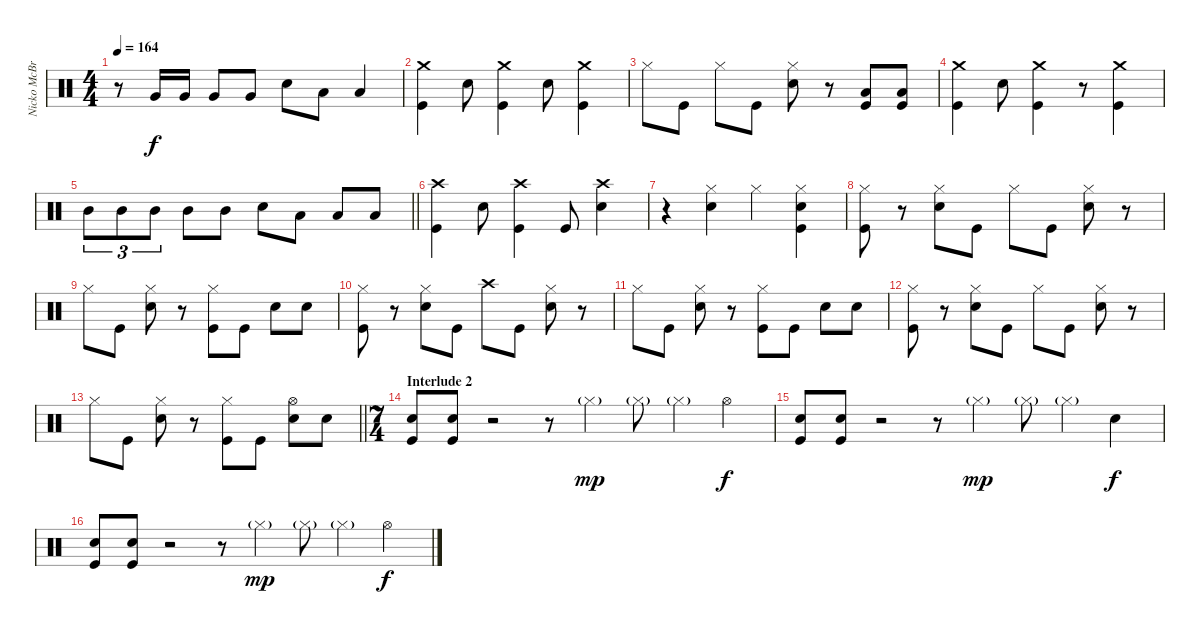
\track ("Nicko McBrain" "Nicko McBr") {instrument percussion}
\staff {score}
\articulation defaults
\ts (4 4)
\tempo 164
\clef neutral
\ks c
r.8{dy f} "Very Low Tom (hit)".16 "Very Low Tom (hit)".16 "Very Low Tom (hit)".8 "Very Low Tom (hit)".8 "Electric Snare (hit)".8 "Low Tom (hit)".8 "Low Tom (hit)".4 |
("Crash medium (hit)" "Kick (hit)").4 "Electric Snare (hit)".8 ("Crash medium (hit)" "Kick (hit)").4 "Electric Snare (hit)".8 ("Crash medium (hit)" "Kick (hit)").4 |
"Hi-Hat (closed)".8 "Kick (hit)".8 "Hi-Hat (closed)".8 "Kick (hit)".8 ("Hi-Hat (closed)" "Electric Snare (hit)").8 r.8 ("Low Tom (hit)" "Kick (hit)").8 ("Low Tom (hit)" "Kick (hit)").8 |
("Crash medium (hit)" "Kick (hit)").4 "Electric Snare (hit)".8 ("Crash medium (hit)" "Kick (hit)").4 r.8 ("Crash medium (hit)" "Kick (hit)").4 |
\barLineRight lightlight "Mid Tom (hit)".8{tu (3 2)} "Mid Tom (hit)".8{tu (3 2)} "Mid Tom (hit)".8{tu (3 2)} "Mid Tom (hit)".8 "Mid Tom (hit)".8 "Electric Snare (hit)".8 "Low Tom (hit)".8 "Low Tom (hit)".8 "Low Tom (hit)".8
|
("Crash high (hit)" "Kick (hit)").4 "Electric Snare (hit)".8 ("Crash high (hit)" "Kick (hit)").4 "Kick (hit)".8 ("Crash high (hit)" "Electric Snare (hit)").4 |
r.4 ("Hi-Hat (closed)" "Electric Snare (hit)").4 "Hi-Hat (closed)".4 ("Hi-Hat (closed)" "Electric Snare (hit)" "Kick (hit)").4 |
("Hi-Hat (closed)" "Kick (hit)").8 r.8 ("Hi-Hat (closed)" "Electric Snare (hit)").8 "Kick (hit)".8 "Hi-Hat (closed)".8 "Kick (hit)".8 ("Hi-Hat (closed)" "Electric Snare (hit)").8 r.8 |
"Hi-Hat (closed)".8 "Kick (hit)".8 ("Hi-Hat (closed)" "Electric Snare (hit)").8 r.8 ("Hi-Hat (closed)" "Kick (hit)").8 "Kick (hit)".8 "Electric Snare (hit)".8 "Electric Snare (hit)".8 |
("Hi-Hat (closed)" "Kick (hit)").8 r.8 ("Hi-Hat (closed)" "Electric Snare (hit)").8 "Kick (hit)".8 "Crash high (hit)".8 "Kick (hit)".8 ("Hi-Hat (closed)" "Electric Snare (hit)").8 r.8 |
"Hi-Hat (closed)".8 "Kick (hit)".8 ("Hi-Hat (closed)" "Electric Snare (hit)").8 r.8 ("Hi-Hat (closed)" "Kick (hit)").8 "Kick (hit)".8 "Electric Snare (hit)".8 "Electric Snare (hit)".8 |
("Hi-Hat (closed)" "Kick (hit)").8 r.8 ("Hi-Hat (closed)" "Electric Snare (hit)").8 "Kick (hit)".8 "Hi-Hat (closed)".8 "Kick (hit)".8 ("Hi-Hat (closed)" "Electric Snare (hit)").8 r.8 |
\barLineRight lightlight "Hi-Hat (closed)".8 "Kick (hit)".8
("Hi-Hat (closed)" "Electric Snare (hit)").8 r.8 ("Hi-Hat (closed)" "Kick (hit)").8 "Kick (hit)".8 ("Hi-Hat (open)" "Electric Snare (hit)").8 "Electric Snare (hit)".8 |
\ts (7 4)
\section ("" "Interlude 2")
("Electric Snare (hit)" "Kick (hit)").8 ("Electric Snare (hit)" "Kick (hit)").8 r.2 r.8 "Hi-Hat (closed)"{g}.4{dy mp} "Hi-Hat (closed)"{g}.8 "Hi-Hat (closed)"{g}.4 "Hi-Hat (open)".4{dy f} |
("Electric Snare (hit)" "Kick (hit)").8 ("Electric Snare (hit)" "Kick (hit)").8 r.2 r.8 "Hi-Hat (closed)"{g}.4{dy mp} "Hi-Hat (closed)"{g}.8 "Hi-Hat (closed)"{g}.4 "Electric Snare (hit)".4{dy f} |
("Electric Snare (hit)" "Kick (hit)").8 ("Electric Snare (hit)" "Kick (hit)").8 r.2 r.8 "Hi-Hat (closed)"{g}.4{dy mp} "Hi-Hat (closed)"{g}.8 "Hi-Hat (closed)"{g}.4 "Hi-Hat (open)".4{dy f}
